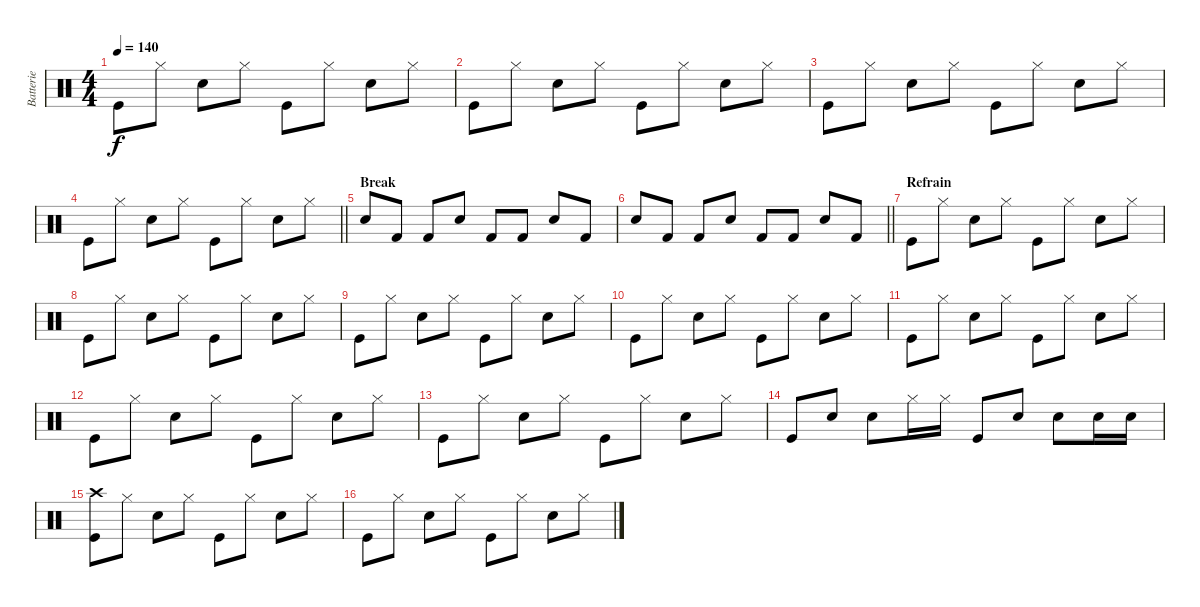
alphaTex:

\track ("Batterie" "Batterie") {instrument percussion}
\staff {score}
\articulation defaults
\ts (4 4)
\tempo 140
\clef neutral
\ks c "Kick (hit)".8{dy f} "Hi-Hat (closed)".8 "Snare (hit) 2".8 "Hi-Hat (closed)".8 "Kick (hit)".8 "Hi-Hat (closed)".8 "Snare (hit) 2".8 "Hi-Hat (closed)".8
|
"Kick (hit)".8 "Hi-Hat (closed)".8 "Snare (hit) 2".8 "Hi-Hat (closed)".8 "Kick (hit)".8 "Hi-Hat (closed)".8 "Snare (hit) 2".8 "Hi-Hat (closed)".8 |
"Kick (hit)".8 "Hi-Hat (closed)".8 "Snare (hit) 2".8 "Hi-Hat (closed)".8 "Kick (hit)".8 "Hi-Hat (closed)".8 "Snare (hit) 2".8 "Hi-Hat (closed)".8 |
\barLineRight lightlight "Kick (hit)".8 "Hi-Hat (closed)".8 "Snare (hit) 2".8 "Hi-Hat (closed)".8 "Kick (hit)".8 "Hi-Hat (closed)".8 "Snare (hit) 2".8 "Hi-Hat (closed)".8
|
\section ("" "Break")
"Electric Snare (hit)".8 "Kick (hit) 2".8 "Kick (hit) 2".8 "Electric Snare (hit)".8 "Kick (hit) 2".8 "Kick (hit) 2".8 "Electric Snare (hit)".8 "Kick (hit) 2".8 |
\barLineRight lightlight "Electric Snare (hit)".8 "Kick (hit) 2".8 "Kick (hit) 2".8 "Electric Snare (hit)".8 "Kick (hit) 2".8 "Kick (hit) 2".8 "Electric Snare (hit)".8 "Kick (hit) 2".8
|
\section ("" "Refrain")
"Kick (hit)".8 "Hi-Hat (closed)".8 "Snare (hit) 2".8 "Hi-Hat (closed)".8 "Kick (hit)".8 "Hi-Hat (closed)".8 "Snare (hit) 2".8 "Hi-Hat (closed)".8 |
"Kick (hit)".8 "Hi-Hat (closed)".8 "Snare (hit) 2".8 "Hi-Hat (closed)".8 "Kick (hit)".8 "Hi-Hat (closed)".8 "Snare (hit) 2".8 "Hi-Hat (closed)".8 |
"Kick (hit)".8 "Hi-Hat (closed)".8 "Snare (hit) 2".8 "Hi-Hat (closed)".8 "Kick (hit)".8 "Hi-Hat (closed)".8 "Snare (hit) 2".8 "Hi-Hat (closed)".8 |
"Kick (hit)".8 "Hi-Hat (closed)".8 "Snare (hit) 2".8 "Hi-Hat (closed)".8 "Kick (hit)".8 "Hi-Hat (closed)".8 "Snare (hit) 2".8 "Hi-Hat (closed)".8 |
"Kick (hit)".8 "Hi-Hat (closed)".8 "Snare (hit) 2".8 "Hi-Hat (closed)".8 "Kick (hit)".8 "Hi-Hat (closed)".8 "Snare (hit) 2".8 "Hi-Hat (closed)".8 |
"Kick (hit)".8 "Hi-Hat (closed)".8 "Snare (hit) 2".8 "Hi-Hat (closed)".8 "Kick (hit)".8 "Hi-Hat (closed)".8 "Snare (hit) 2".8 "Hi-Hat (closed)".8 |
"Kick (hit)".8 "Hi-Hat (closed)".8 "Snare (hit) 2".8 "Hi-Hat (closed)".8 "Kick (hit)".8 "Hi-Hat (closed)".8 "Snare (hit) 2".8 "Hi-Hat (closed)".8 |
"Kick (hit)".8 "Snare (hit) 2".8 "Snare (hit) 2".8 "Hi-Hat (closed)".16 "Hi-Hat (closed)".16 "Kick (hit)".8 "Snare (hit) 2".8 "Snare (hit) 2".8 "Snare (hit) 2".16 "Snare (hit) 2".16 |
("Kick (hit)" "Crash high (hit)").8 "Hi-Hat (closed)".8 "Snare (hit) 2".8 "Hi-Hat (closed)".8 "Kick (hit)".8 "Hi-Hat (closed)".8 "Snare (hit) 2".8 "Hi-Hat (closed)".8 |
"Kick (hit)".8 "Hi-Hat (closed)".8 "Snare (hit) 2".8 "Hi-Hat (closed)".8 "Kick (hit)".8 "Hi-Hat (closed)".8 "Snare (hit) 2".8 "Hi-Hat (closed)".8
